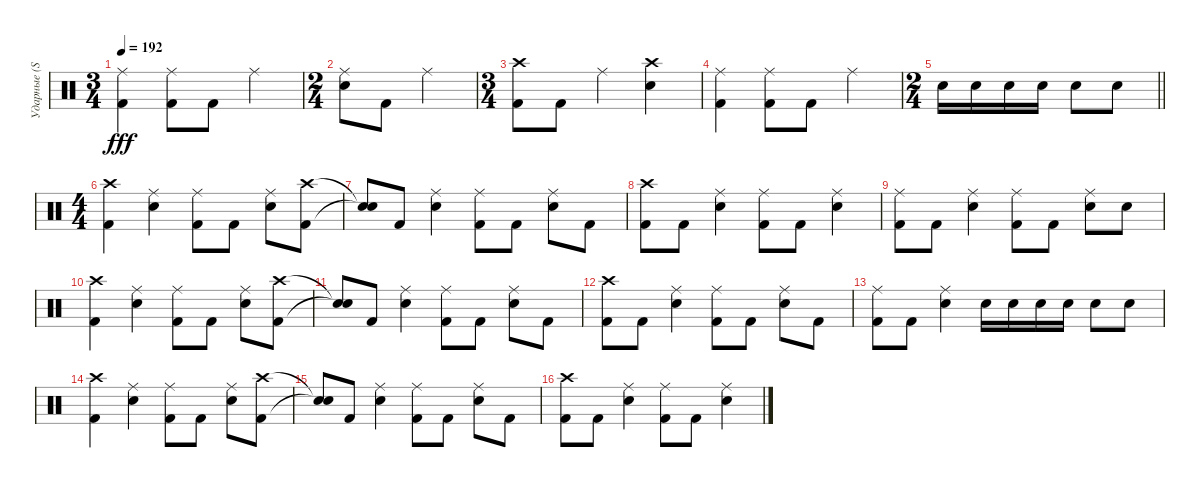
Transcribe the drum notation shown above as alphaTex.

\track ("Ударные (Steve Jocz)" "Ударные (S") {instrument percussion}
\staff {score}
\articulation defaults
\ts (3 4)
\tempo 192
\clef neutral
\ks c
("Ride (middle)" "Kick (hit) 2").4{dy fff} ("Ride (middle)" "Kick (hit) 2").8 "Kick (hit) 2".8 "Ride (middle)".4 |
\ts (2 4)
("Ride (middle)" "Electric Snare (hit)").8 "Kick (hit) 2".8 "Ride (middle)".4 |
\ts (3 4)
("Crash high (hit)" "Kick (hit) 2").8 "Kick (hit) 2".8 "Ride (middle)".4 ("Crash high (hit)" "Electric Snare (hit)").4 |
("Ride (middle)" "Kick (hit) 2").4 ("Ride (middle)" "Kick (hit) 2").8 "Kick (hit) 2".8 "Ride (middle)".4 |
\ts (2 4)
\barLineRight lightlight "Electric Snare (hit)".16 "Electric Snare (hit)".16 "Electric Snare (hit)".16 "Electric Snare (hit)".16 "Electric Snare (hit)".8 "Electric Snare (hit)".8
|
\ts (4 4)
("Crash high (hit)" "Kick (hit) 2").4 ("Ride (middle)" "Electric Snare (hit)").4 ("Ride (middle)" "Kick (hit) 2").8 "Kick (hit) 2".8 ("Ride (middle)" "Electric Snare (hit)").8 ("Crash high (hit)" "Kick (hit) 2").8 |
("Snare (hit)"{t} "Snare (hit)"{t}).8 "Kick (hit) 2".8 ("Ride (middle)" "Electric Snare (hit)").4 ("Ride (middle)" "Kick (hit) 2").8 "Kick (hit) 2".8 ("Ride (middle)" "Electric Snare (hit)").8 "Kick (hit) 2".8 |
("Crash high (hit)" "Kick (hit) 2").8 "Kick (hit) 2".8 ("Ride (middle)" "Electric Snare (hit)").4 ("Ride (middle)" "Kick (hit) 2").8 "Kick (hit) 2".8 ("Ride (middle)" "Electric Snare (hit)").4 |
("Ride (middle)" "Kick (hit) 2").8 "Kick (hit) 2".8 ("Ride (middle)" "Electric Snare (hit)").4 ("Ride (middle)" "Kick (hit) 2").8 "Kick (hit) 2".8 ("Ride (middle)" "Electric Snare (hit)").8 "Electric Snare (hit)".8 |
("Crash high (hit)" "Kick (hit) 2").4 ("Ride (middle)" "Electric Snare (hit)").4 ("Ride (middle)" "Kick (hit) 2").8 "Kick (hit) 2".8 ("Ride (middle)" "Electric Snare (hit)").8 ("Crash high (hit)" "Kick (hit) 2").8 |
("Snare (hit)"{t} "Snare (hit)"{t}).8 "Kick (hit) 2".8 ("Ride (middle)" "Electric Snare (hit)").4 ("Ride (middle)" "Kick (hit) 2").8 "Kick (hit) 2".8 ("Ride (middle)" "Electric Snare (hit)").8 "Kick (hit) 2".8 |
("Crash high (hit)" "Kick (hit) 2").8 "Kick (hit) 2".8 ("Ride (middle)" "Electric Snare (hit)").4 ("Ride (middle)" "Kick (hit) 2").8 "Kick (hit) 2".8 ("Ride (middle)" "Electric Snare (hit)").8 "Kick (hit) 2".8 |
("Ride (middle)" "Kick (hit) 2").8 "Kick (hit) 2".8 ("Ride (middle)" "Electric Snare (hit)").4 "Electric Snare (hit)".16 "Electric Snare (hit)".16 "Electric Snare (hit)".16 "Electric Snare (hit)".16 "Electric Snare (hit)".8 "Electric Snare (hit)".8 |
("Crash high (hit)" "Kick (hit) 2").4 ("Ride (middle)" "Electric Snare (hit)").4 ("Ride (middle)" "Kick (hit) 2").8 "Kick (hit) 2".8 ("Ride (middle)" "Electric Snare (hit)").8 ("Crash high (hit)" "Kick (hit) 2").8 |
("Snare (hit)"{t} "Snare (hit)"{t}).8 "Kick (hit) 2".8 ("Ride (middle)" "Electric Snare (hit)").4 ("Ride (middle)" "Kick (hit) 2").8 "Kick (hit) 2".8 ("Ride (middle)" "Electric Snare (hit)").8 "Kick (hit) 2".8 |
("Crash high (hit)" "Kick (hit) 2").8 "Kick (hit) 2".8 ("Ride (middle)" "Electric Snare (hit)").4 ("Ride (middle)" "Kick (hit) 2").8 "Kick (hit) 2".8 ("Ride (middle)" "Electric Snare (hit)").4
